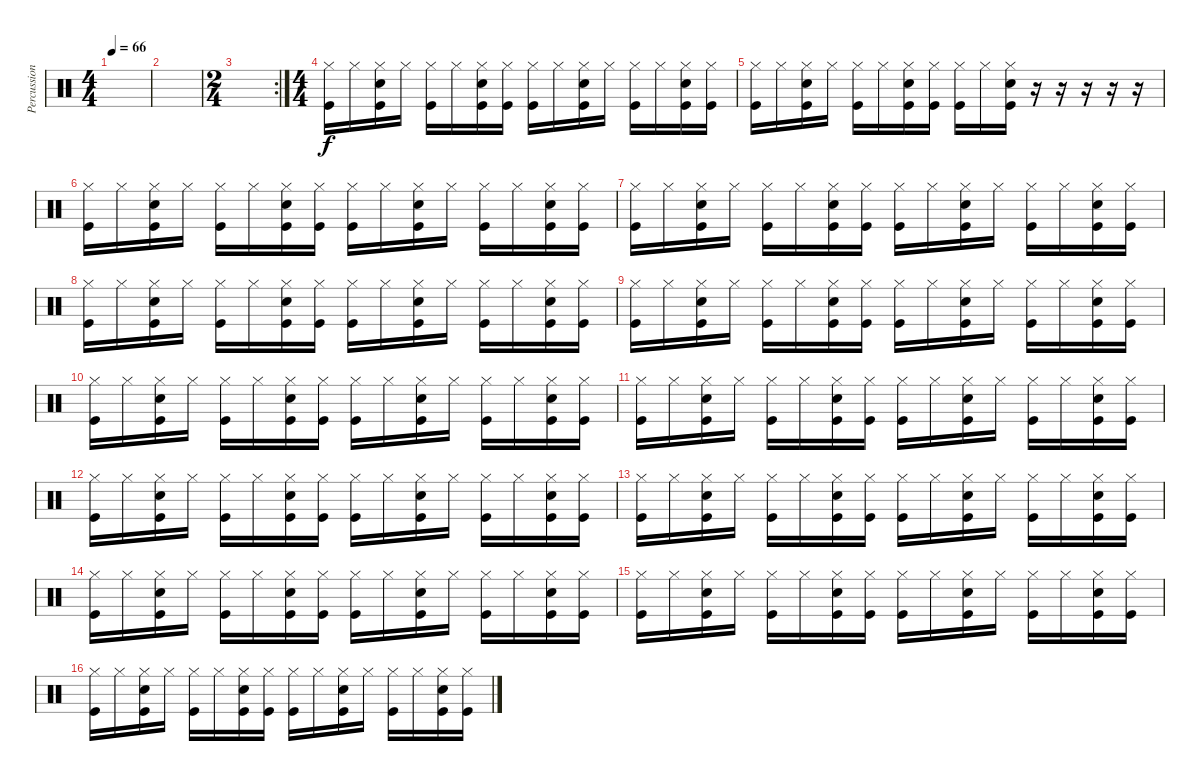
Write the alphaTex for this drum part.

\track ("Percussion" "Percussion") {instrument percussion}
\staff {score}
\articulation defaults
\ts (4 4)
\tempo 66
\clef neutral
\ks c
|
|
\rc 2
\ts (2 4)
|
\ts (4 4)
("Hi-Hat (closed)" "Kick (hit)").16 "Hi-Hat (closed)".16 ("Hi-Hat (closed)" "Kick (hit)" "Electric Snare (hit)").16 "Hi-Hat (closed)".16 ("Hi-Hat (closed)" "Kick (hit)").16 "Hi-Hat (closed)".16 ("Hi-Hat (closed)" "Kick (hit)" "Electric Snare (hit)").16 ("Hi-Hat (closed)" "Kick (hit)").16 ("Hi-Hat (closed)" "Kick (hit)").16 "Hi-Hat (closed)".16 ("Hi-Hat (closed)" "Kick (hit)" "Electric Snare (hit)").16 "Hi-Hat (closed)".16 ("Hi-Hat (closed)" "Kick (hit)").16 "Hi-Hat (closed)".16 ("Hi-Hat (closed)" "Kick (hit)" "Electric Snare (hit)").16 ("Hi-Hat (closed)" "Kick (hit)").16 |
("Hi-Hat (closed)" "Kick (hit)").16 "Hi-Hat (closed)".16 ("Hi-Hat (closed)" "Kick (hit)" "Electric Snare (hit)").16 "Hi-Hat (closed)".16 ("Hi-Hat (closed)" "Kick (hit)").16 "Hi-Hat (closed)".16 ("Hi-Hat (closed)" "Kick (hit)" "Electric Snare (hit)").16 ("Hi-Hat (closed)" "Kick (hit)").16 ("Hi-Hat (closed)" "Kick (hit)").16 "Hi-Hat (closed)".16 ("Hi-Hat (closed)" "Kick (hit)" "Electric Snare (hit)").16 r.16 r.16 r.16 r.16 r.16 |
("Hi-Hat (closed)" "Kick (hit)").16 "Hi-Hat (closed)".16 ("Hi-Hat (closed)" "Kick (hit)" "Electric Snare (hit)").16 "Hi-Hat (closed)".16 ("Hi-Hat (closed)" "Kick (hit)").16 "Hi-Hat (closed)".16 ("Hi-Hat (closed)" "Kick (hit)" "Electric Snare (hit)").16 ("Hi-Hat (closed)" "Kick (hit)").16 ("Hi-Hat (closed)" "Kick (hit)").16 "Hi-Hat (closed)".16 ("Hi-Hat (closed)" "Kick (hit)" "Electric Snare (hit)").16 "Hi-Hat (closed)".16 ("Hi-Hat (closed)" "Kick (hit)").16 "Hi-Hat (closed)".16 ("Hi-Hat (closed)" "Kick (hit)" "Electric Snare (hit)").16 ("Hi-Hat (closed)" "Kick (hit)").16 |
("Hi-Hat (closed)" "Kick (hit)").16 "Hi-Hat (closed)".16 ("Hi-Hat (closed)" "Kick (hit)" "Electric Snare (hit)").16 "Hi-Hat (closed)".16 ("Hi-Hat (closed)" "Kick (hit)").16 "Hi-Hat (closed)".16 ("Hi-Hat (closed)" "Kick (hit)" "Electric Snare (hit)").16 ("Hi-Hat (closed)" "Kick (hit)").16 ("Hi-Hat (closed)" "Kick (hit)").16 "Hi-Hat (closed)".16 ("Hi-Hat (closed)" "Kick (hit)" "Electric Snare (hit)").16 "Hi-Hat (closed)".16 ("Hi-Hat (closed)" "Kick (hit)").16 "Hi-Hat (closed)".16 ("Hi-Hat (closed)" "Kick (hit)" "Electric Snare (hit)").16 ("Hi-Hat (closed)" "Kick (hit)").16 |
("Hi-Hat (closed)" "Kick (hit)").16 "Hi-Hat (closed)".16 ("Hi-Hat (closed)" "Kick (hit)" "Electric Snare (hit)").16 "Hi-Hat (closed)".16 ("Hi-Hat (closed)" "Kick (hit)").16 "Hi-Hat (closed)".16 ("Hi-Hat (closed)" "Kick (hit)" "Electric Snare (hit)").16 ("Hi-Hat (closed)" "Kick (hit)").16 ("Hi-Hat (closed)" "Kick (hit)").16 "Hi-Hat (closed)".16 ("Hi-Hat (closed)" "Kick (hit)" "Electric Snare (hit)").16 "Hi-Hat (closed)".16 ("Hi-Hat (closed)" "Kick (hit)").16 "Hi-Hat (closed)".16 ("Hi-Hat (closed)" "Kick (hit)" "Electric Snare (hit)").16 ("Hi-Hat (closed)" "Kick (hit)").16 |
("Hi-Hat (closed)" "Kick (hit)").16 "Hi-Hat (closed)".16 ("Hi-Hat (closed)" "Kick (hit)" "Electric Snare (hit)").16 "Hi-Hat (closed)".16 ("Hi-Hat (closed)" "Kick (hit)").16 "Hi-Hat (closed)".16 ("Hi-Hat (closed)" "Kick (hit)" "Electric Snare (hit)").16 ("Hi-Hat (closed)" "Kick (hit)").16 ("Hi-Hat (closed)" "Kick (hit)").16 "Hi-Hat (closed)".16 ("Hi-Hat (closed)" "Kick (hit)" "Electric Snare (hit)").16 "Hi-Hat (closed)".16 ("Hi-Hat (closed)" "Kick (hit)").16 "Hi-Hat (closed)".16 ("Hi-Hat (closed)" "Kick (hit)" "Electric Snare (hit)").16 ("Hi-Hat (closed)" "Kick (hit)").16 |
("Hi-Hat (closed)" "Kick (hit)").16 "Hi-Hat (closed)".16 ("Hi-Hat (closed)" "Kick (hit)" "Electric Snare (hit)").16 "Hi-Hat (closed)".16 ("Hi-Hat (closed)" "Kick (hit)").16 "Hi-Hat (closed)".16 ("Hi-Hat (closed)" "Kick (hit)" "Electric Snare (hit)").16 ("Hi-Hat (closed)" "Kick (hit)").16 ("Hi-Hat (closed)" "Kick (hit)").16 "Hi-Hat (closed)".16 ("Hi-Hat (closed)" "Kick (hit)" "Electric Snare (hit)").16 "Hi-Hat (closed)".16 ("Hi-Hat (closed)" "Kick (hit)").16 "Hi-Hat (closed)".16 ("Hi-Hat (closed)" "Kick (hit)" "Electric Snare (hit)").16 ("Hi-Hat (closed)" "Kick (hit)").16 |
("Hi-Hat (closed)" "Kick (hit)").16 "Hi-Hat (closed)".16 ("Hi-Hat (closed)" "Kick (hit)" "Electric Snare (hit)").16 "Hi-Hat (closed)".16 ("Hi-Hat (closed)" "Kick (hit)").16 "Hi-Hat (closed)".16 ("Hi-Hat (closed)" "Kick (hit)" "Electric Snare (hit)").16 ("Hi-Hat (closed)" "Kick (hit)").16 ("Hi-Hat (closed)" "Kick (hit)").16 "Hi-Hat (closed)".16 ("Hi-Hat (closed)" "Kick (hit)" "Electric Snare (hit)").16 "Hi-Hat (closed)".16 ("Hi-Hat (closed)" "Kick (hit)").16 "Hi-Hat (closed)".16 ("Hi-Hat (closed)" "Kick (hit)" "Electric Snare (hit)").16 ("Hi-Hat (closed)" "Kick (hit)").16 |
("Hi-Hat (closed)" "Kick (hit)").16 "Hi-Hat (closed)".16 ("Hi-Hat (closed)" "Kick (hit)" "Electric Snare (hit)").16 "Hi-Hat (closed)".16 ("Hi-Hat (closed)" "Kick (hit)").16 "Hi-Hat (closed)".16 ("Hi-Hat (closed)" "Kick (hit)" "Electric Snare (hit)").16 ("Hi-Hat (closed)" "Kick (hit)").16 ("Hi-Hat (closed)" "Kick (hit)").16 "Hi-Hat (closed)".16 ("Hi-Hat (closed)" "Kick (hit)" "Electric Snare (hit)").16 "Hi-Hat (closed)".16 ("Hi-Hat (closed)" "Kick (hit)").16 "Hi-Hat (closed)".16 ("Hi-Hat (closed)" "Kick (hit)" "Electric Snare (hit)").16 ("Hi-Hat (closed)" "Kick (hit)").16 |
("Hi-Hat (closed)" "Kick (hit)").16 "Hi-Hat (closed)".16 ("Hi-Hat (closed)" "Kick (hit)" "Electric Snare (hit)").16 "Hi-Hat (closed)".16 ("Hi-Hat (closed)" "Kick (hit)").16 "Hi-Hat (closed)".16 ("Hi-Hat (closed)" "Kick (hit)" "Electric Snare (hit)").16 ("Hi-Hat (closed)" "Kick (hit)").16 ("Hi-Hat (closed)" "Kick (hit)").16 "Hi-Hat (closed)".16 ("Hi-Hat (closed)" "Kick (hit)" "Electric Snare (hit)").16 "Hi-Hat (closed)".16 ("Hi-Hat (closed)" "Kick (hit)").16 "Hi-Hat (closed)".16 ("Hi-Hat (closed)" "Kick (hit)" "Electric Snare (hit)").16 ("Hi-Hat (closed)" "Kick (hit)").16 |
("Hi-Hat (closed)" "Kick (hit)").16 "Hi-Hat (closed)".16 ("Hi-Hat (closed)" "Kick (hit)" "Electric Snare (hit)").16 "Hi-Hat (closed)".16 ("Hi-Hat (closed)" "Kick (hit)").16 "Hi-Hat (closed)".16 ("Hi-Hat (closed)" "Kick (hit)" "Electric Snare (hit)").16 ("Hi-Hat (closed)" "Kick (hit)").16 ("Hi-Hat (closed)" "Kick (hit)").16 "Hi-Hat (closed)".16 ("Hi-Hat (closed)" "Kick (hit)" "Electric Snare (hit)").16 "Hi-Hat (closed)".16 ("Hi-Hat (closed)" "Kick (hit)").16 "Hi-Hat (closed)".16 ("Hi-Hat (closed)" "Kick (hit)" "Electric Snare (hit)").16 ("Hi-Hat (closed)" "Kick (hit)").16 |
("Hi-Hat (closed)" "Kick (hit)").16 "Hi-Hat (closed)".16 ("Hi-Hat (closed)" "Kick (hit)" "Electric Snare (hit)").16 "Hi-Hat (closed)".16 ("Hi-Hat (closed)" "Kick (hit)").16 "Hi-Hat (closed)".16 ("Hi-Hat (closed)" "Kick (hit)" "Electric Snare (hit)").16 ("Hi-Hat (closed)" "Kick (hit)").16 ("Hi-Hat (closed)" "Kick (hit)").16 "Hi-Hat (closed)".16 ("Hi-Hat (closed)" "Kick (hit)" "Electric Snare (hit)").16 "Hi-Hat (closed)".16 ("Hi-Hat (closed)" "Kick (hit)").16 "Hi-Hat (closed)".16 ("Hi-Hat (closed)" "Kick (hit)" "Electric Snare (hit)").16 ("Hi-Hat (closed)" "Kick (hit)").16 |
("Hi-Hat (closed)" "Kick (hit)").16 "Hi-Hat (closed)".16 ("Hi-Hat (closed)" "Kick (hit)" "Electric Snare (hit)").16 "Hi-Hat (closed)".16 ("Hi-Hat (closed)" "Kick (hit)").16 "Hi-Hat (closed)".16 ("Hi-Hat (closed)" "Kick (hit)" "Electric Snare (hit)").16 ("Hi-Hat (closed)" "Kick (hit)").16 ("Hi-Hat (closed)" "Kick (hit)").16 "Hi-Hat (closed)".16 ("Hi-Hat (closed)" "Kick (hit)" "Electric Snare (hit)").16 "Hi-Hat (closed)".16 ("Hi-Hat (closed)" "Kick (hit)").16 "Hi-Hat (closed)".16 ("Hi-Hat (closed)" "Kick (hit)" "Electric Snare (hit)").16 ("Hi-Hat (closed)" "Kick (hit)").16
